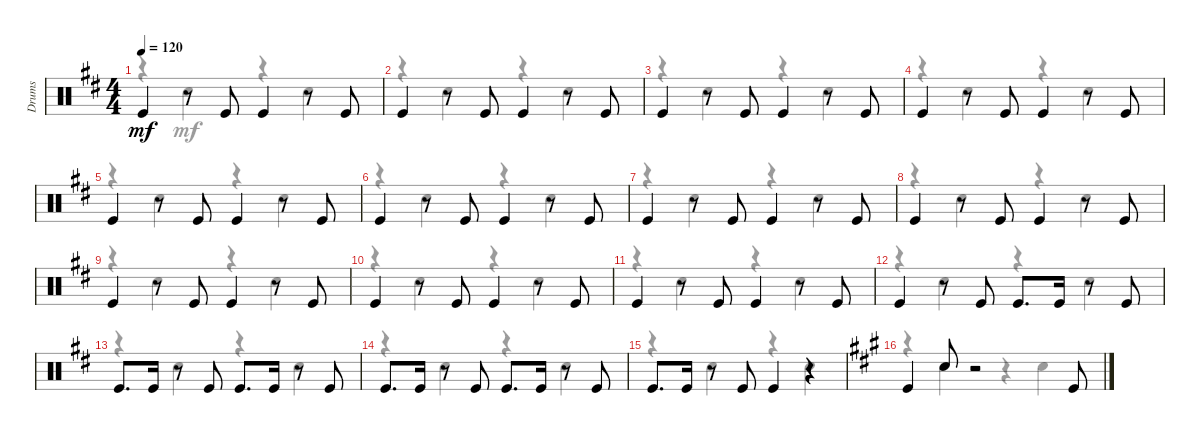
\track ("Drums" "Drums") {instrument percussion}
\staff {score}
\articulation defaults
\voice
\ts (4 4)
\tempo 120
\clef neutral
\ks bminor "Kick (hit)".4{dy mf}
r.8 "Kick (hit)".8 "Kick (hit)".4 r.8 "Kick (hit)".8 |
"Kick (hit)".4 r.8 "Kick (hit)".8 "Kick (hit)".4 r.8 "Kick (hit)".8 |
"Kick (hit)".4 r.8 "Kick (hit)".8 "Kick (hit)".4 r.8 "Kick (hit)".8 |
"Kick (hit)".4 r.8 "Kick (hit)".8 "Kick (hit)".4 r.8 "Kick (hit)".8 |
"Kick (hit)".4 r.8 "Kick (hit)".8 "Kick (hit)".4 r.8 "Kick (hit)".8 |
"Kick (hit)".4 r.8 "Kick (hit)".8 "Kick (hit)".4 r.8 "Kick (hit)".8 |
"Kick (hit)".4 r.8 "Kick (hit)".8 "Kick (hit)".4 r.8 "Kick (hit)".8 |
"Kick (hit)".4 r.8 "Kick (hit)".8 "Kick (hit)".4 r.8 "Kick (hit)".8 |
"Kick (hit)".4 r.8 "Kick (hit)".8 "Kick (hit)".4 r.8 "Kick (hit)".8 |
"Kick (hit)".4 r.8 "Kick (hit)".8 "Kick (hit)".4 r.8 "Kick (hit)".8 |
"Kick (hit)".4 r.8 "Kick (hit)".8 "Kick (hit)".4 r.8 "Kick (hit)".8 |
"Kick (hit)".4 r.8 "Kick (hit)".8 "Kick (hit)".8{d} "Kick (hit)".16 r.8 "Kick (hit)".8 |
"Kick (hit)".8{d} "Kick (hit)".16 r.8 "Kick (hit)".8 "Kick (hit)".8{d} "Kick (hit)".16 r.8 "Kick (hit)".8 |
"Kick (hit)".8{d} "Kick (hit)".16 r.8 "Kick (hit)".8 "Kick (hit)".8{d} "Kick (hit)".16 r.8 "Kick (hit)".8 |
"Kick (hit)".8{d} "Kick (hit)".16 r.8 "Kick (hit)".8 "Kick (hit)".4 r.4 |
\ks f#minor "Kick (hit)".4 "Snare (hit) 2".8
r.2 "Kick (hit)".8
\voice
\clef neutral
\ottava regular
\simile none
\ks bminor
r.4{dy mf} "Snare (hit) 2".4 r.4 "Snare (hit) 2".4 |
r.4 "Snare (hit) 2".4 r.4 "Snare (hit) 2".4 |
r.4 "Snare (hit) 2".4 r.4 "Snare (hit) 2".4 |
r.4 "Snare (hit) 2".4 r.4 "Snare (hit) 2".4 |
r.4 "Snare (hit) 2".4 r.4 "Snare (hit) 2".4 |
r.4 "Snare (hit) 2".4 r.4 "Snare (hit) 2".4 |
r.4 "Snare (hit) 2".4 r.4 "Snare (hit) 2".4 |
r.4 "Snare (hit) 2".4 r.4 "Snare (hit) 2".4 |
r.4 "Snare (hit) 2".4 r.4 "Snare (hit) 2".4 |
r.4 "Snare (hit) 2".4 r.4 "Snare (hit) 2".4 |
r.4 "Snare (hit) 2".4 r.4 "Snare (hit) 2".4 |
r.4 "Snare (hit) 2".4 r.4 "Snare (hit) 2".4 |
r.4 "Snare (hit) 2".4 r.4 "Snare (hit) 2".4 |
r.4 "Snare (hit) 2".4 r.4 "Snare (hit) 2".4 |
r.4 "Snare (hit) 2".4 r.4 "Snare (hit) 2".4 |
\ks f#minor
r.4 "Snare (hit) 2".4 r.4 "Snare (hit) 2".4
